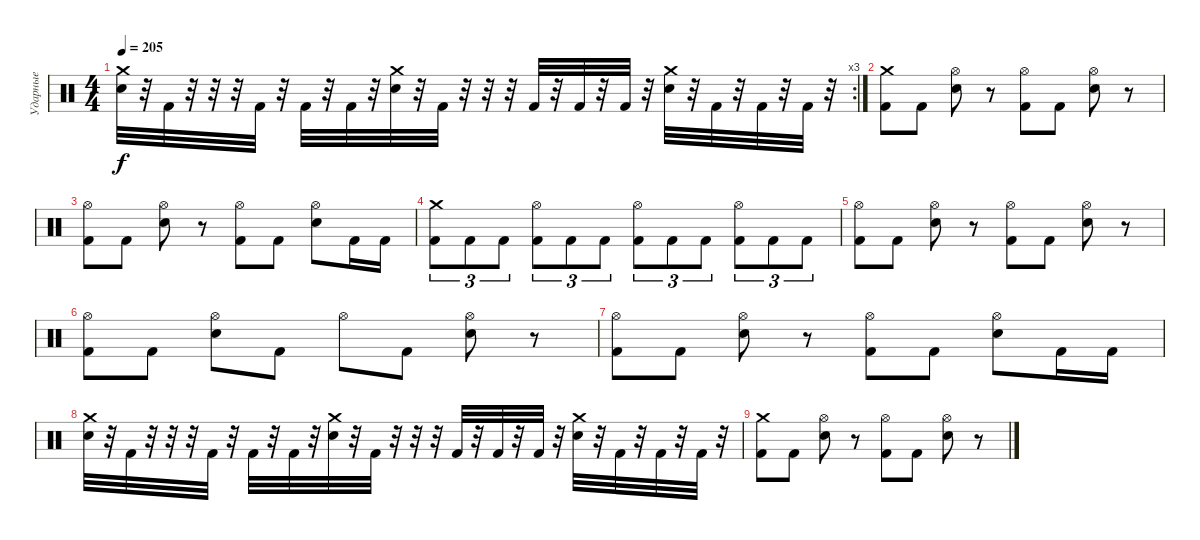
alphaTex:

\track ("Ударные" "Ударные") {instrument percussion}
\staff {score}
\articulation defaults
\rc 3
\ts (4 4)
\tempo 205
\clef neutral
\ks c
("Crash medium (hit)" "Electric Snare (hit)").32{dy f} r.32 "Kick (hit) 2".32 r.32 r.32 r.32 "Kick (hit) 2".32 r.32 "Kick (hit) 2".32 r.32 "Kick (hit) 2".32 r.32 ("Crash medium (hit)" "Electric Snare (hit)").32 r.32 "Kick (hit) 2".32 r.32 r.32 r.32 "Kick (hit) 2".32 r.32 "Kick (hit) 2".32 r.32 "Kick (hit) 2".32 r.32 ("Crash medium (hit)" "Electric Snare (hit)").32 r.32 "Kick (hit) 2".32 r.32 "Kick (hit) 2".32 r.32 "Kick (hit) 2".32 r.32 |
("Crash medium (hit)" "Kick (hit) 2").8 "Kick (hit) 2".8 ("Hi-Hat (open)" "Electric Snare (hit)").8 r.8 ("Hi-Hat (open)" "Kick (hit) 2").8 "Kick (hit) 2".8 ("Hi-Hat (open)" "Electric Snare (hit)").8 r.8 |
("Hi-Hat (open)" "Kick (hit) 2").8 "Kick (hit) 2".8 ("Hi-Hat (open)" "Electric Snare (hit)").8 r.8 ("Hi-Hat (open)" "Kick (hit) 2").8 "Kick (hit) 2".8 ("Hi-Hat (open)" "Electric Snare (hit)").8 "Kick (hit) 2".16 "Kick (hit) 2".16 |
("Crash medium (hit)" "Kick (hit) 2").8{tu (3 2)} "Kick (hit) 2".8{tu (3 2)} "Kick (hit) 2".8{tu (3 2)} ("Hi-Hat (open)" "Kick (hit) 2").8{tu (3 2)} "Kick (hit) 2".8{tu (3 2)} "Kick (hit) 2".8{tu (3 2)} ("Hi-Hat (open)" "Kick (hit) 2").8{tu (3 2)} "Kick (hit) 2".8{tu (3 2)} "Kick (hit) 2".8{tu (3 2)} ("Hi-Hat (open)" "Kick (hit) 2").8{tu (3 2)} "Kick (hit) 2".8{tu (3 2)} "Kick (hit) 2".8{tu (3 2)} |
("Hi-Hat (open)" "Kick (hit) 2").8 "Kick (hit) 2".8 ("Hi-Hat (open)" "Electric Snare (hit)").8 r.8 ("Hi-Hat (open)" "Kick (hit) 2").8 "Kick (hit) 2".8 ("Hi-Hat (open)" "Electric Snare (hit)").8 r.8 |
("Hi-Hat (open)" "Kick (hit) 2").8 "Kick (hit) 2".8 ("Hi-Hat (open)" "Electric Snare (hit)").8 "Kick (hit) 2".8 "Hi-Hat (open)".8 "Kick (hit) 2".8 ("Hi-Hat (open)" "Electric Snare (hit)").8 r.8 |
("Hi-Hat (open)" "Kick (hit) 2").8 "Kick (hit) 2".8 ("Hi-Hat (open)" "Electric Snare (hit)").8 r.8 ("Hi-Hat (open)" "Kick (hit) 2").8 "Kick (hit) 2".8 ("Hi-Hat (open)" "Electric Snare (hit)").8 "Kick (hit) 2".16 "Kick (hit) 2".16 |
("Crash medium (hit)" "Electric Snare (hit)").32 r.32 "Kick (hit) 2".32 r.32 r.32 r.32 "Kick (hit) 2".32 r.32 "Kick (hit) 2".32 r.32 "Kick (hit) 2".32 r.32 ("Crash medium (hit)" "Electric Snare (hit)").32 r.32 "Kick (hit) 2".32 r.32 r.32 r.32 "Kick (hit) 2".32 r.32 "Kick (hit) 2".32 r.32 "Kick (hit) 2".32 r.32 ("Crash medium (hit)" "Electric Snare (hit)").32 r.32 "Kick (hit) 2".32 r.32 "Kick (hit) 2".32 r.32 "Kick (hit) 2".32 r.32 |
("Crash medium (hit)" "Kick (hit) 2").8 "Kick (hit) 2".8 ("Hi-Hat (open)" "Electric Snare (hit)").8 r.8 ("Hi-Hat (open)" "Kick (hit) 2").8 "Kick (hit) 2".8 ("Hi-Hat (open)" "Electric Snare (hit)").8 r.8
